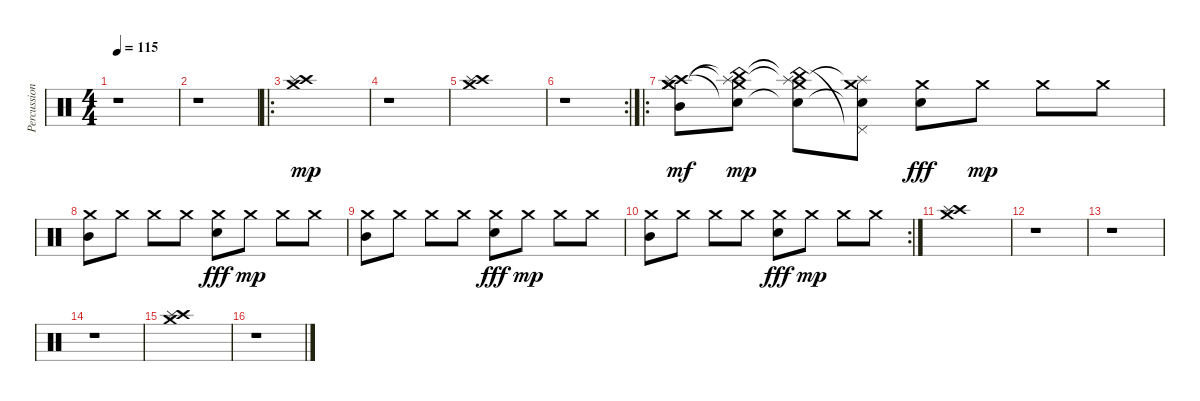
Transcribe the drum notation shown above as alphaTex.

\track ("Percussion" "Percussion") {instrument percussion}
\staff {score}
\articulation defaults
\ts (4 4)
\tempo 115
\clef neutral
\ks c
r.1{dy mp} |
r.1 |
\ro
("Crash medium (hit)" "Crash high (hit)" "Splash (hit)").1 |
r.1 |
("Crash medium (hit)" "Crash high (hit)" "Splash (hit)").1 |
\rc 2
r.1 |
\ro
("Crash medium (hit)" "Crash high (hit)" "Crash medium (hit)" "Splash (hit)" "Mid Tom (hit)").8{dy mf} ("China (hit)"{t} "Snare (hit)"{t} "Crash medium (hit)" "Splash (hit)"{t}).8{dy mp} ("China (hit)"{t} "Snare (hit)"{t} "Crash medium (hit)" "Splash (hit)"{t}).8 ("Pedal Hi-Hat (hit)"{t} "Snare (hit)"{t} "Crash medium (hit)" "Splash (hit)"{t}).8 ("Crash medium (hit)" "Electric Snare (hit)").8{dy fff} "Crash medium (hit)".8{dy mp} "Crash medium (hit)".8 "Crash medium (hit)".8 |
("Crash medium (hit)" "Mid Tom (hit)").8 "Crash medium (hit)".8 "Crash medium (hit)".8 "Crash medium (hit)".8 ("Crash medium (hit)" "Electric Snare (hit)").8{dy fff} "Crash medium (hit)".8{dy mp} "Crash medium (hit)".8 "Crash medium (hit)".8 |
("Crash medium (hit)" "Mid Tom (hit)").8 "Crash medium (hit)".8 "Crash medium (hit)".8 "Crash medium (hit)".8 ("Crash medium (hit)" "Electric Snare (hit)").8{dy fff} "Crash medium (hit)".8{dy mp} "Crash medium (hit)".8 "Crash medium (hit)".8 |
\rc 2
("Crash medium (hit)" "Mid Tom (hit)").8 "Crash medium (hit)".8 "Crash medium (hit)".8 "Crash medium (hit)".8 ("Crash medium (hit)" "Electric Snare (hit)").8{dy fff} "Crash medium (hit)".8{dy mp} "Crash medium (hit)".8 "Crash medium (hit)".8 |
("Crash medium (hit)" "Crash high (hit)" "Splash (hit)").1 |
r.1 |
r.1 |
r.1 |
("Crash medium (hit)" "Crash high (hit)" "Splash (hit)").1 |
r.1
